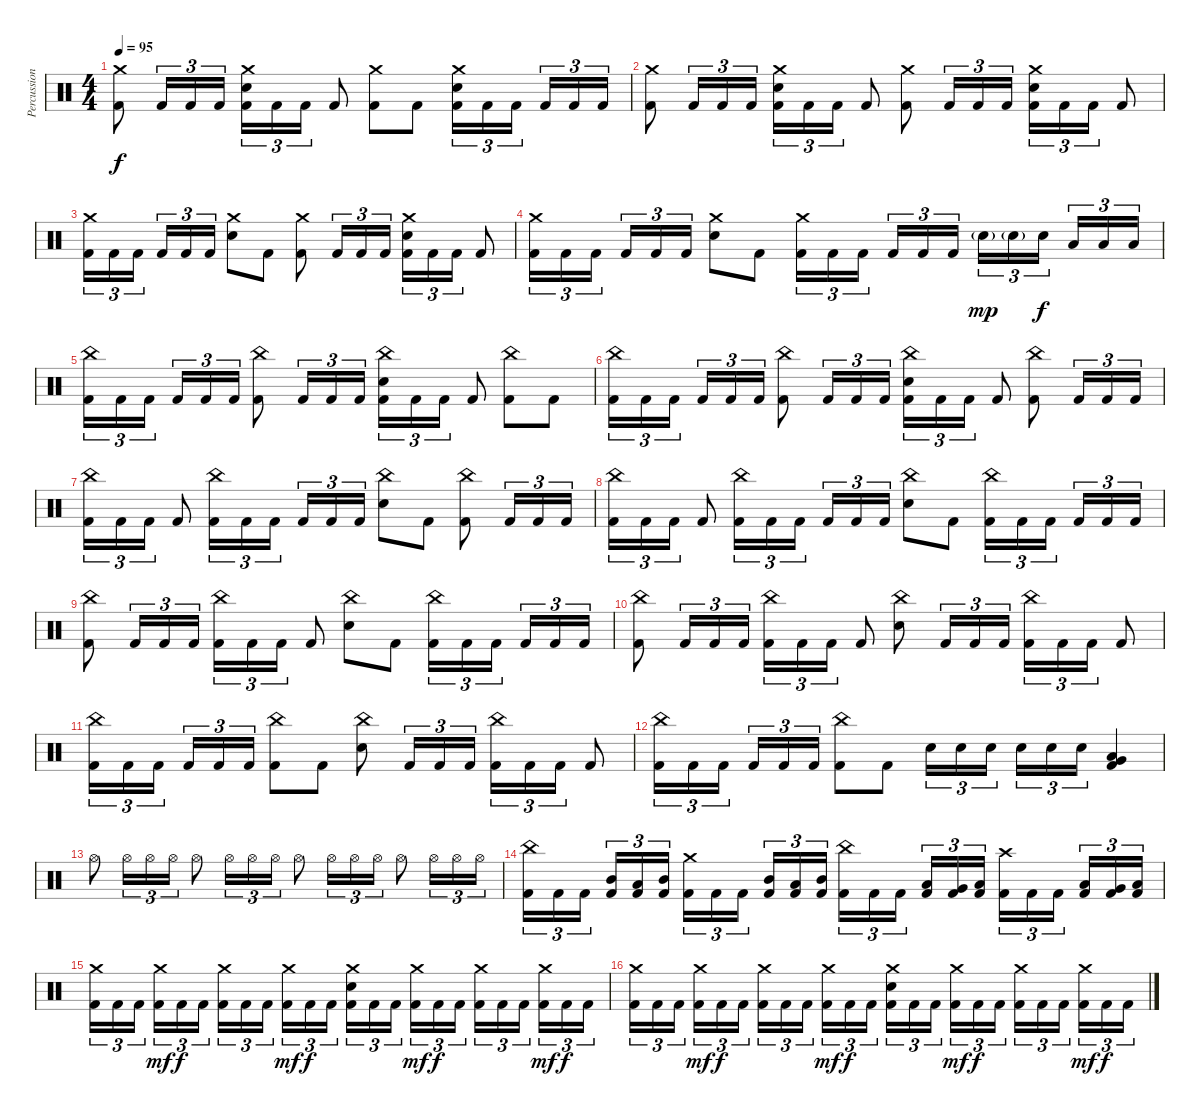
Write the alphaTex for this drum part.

\track ("Percussion" "Percussion") {instrument percussion}
\staff {score}
\articulation defaults
\ts (4 4)
\tempo 95
\clef neutral
\ks c
("Crash medium (hit)" "Kick (hit) 2").8{dy f} "Kick (hit) 2".16{tu (3 2)} "Kick (hit) 2".16{tu (3 2)} "Kick (hit) 2".16{tu (3 2)} ("Crash medium (hit)" "Electric Snare (hit)" "Kick (hit) 2").16{tu (3 2)} "Kick (hit) 2".16{tu (3 2)} "Kick (hit) 2".16{tu (3 2)} "Kick (hit) 2".8 ("Crash medium (hit)" "Kick (hit) 2").8 "Kick (hit) 2".8 ("Crash medium (hit)" "Electric Snare (hit)" "Kick (hit) 2").16{tu (3 2)} "Kick (hit) 2".16{tu (3 2)} "Kick (hit) 2".16{tu (3 2) beam splitsecondary} "Kick (hit) 2".16{tu (3 2)} "Kick (hit) 2".16{tu (3 2)} "Kick (hit) 2".16{tu (3 2)} |
("Crash medium (hit)" "Kick (hit) 2").8 "Kick (hit) 2".16{tu (3 2)} "Kick (hit) 2".16{tu (3 2)} "Kick (hit) 2".16{tu (3 2)} ("Crash medium (hit)" "Electric Snare (hit)" "Kick (hit) 2").16{tu (3 2)} "Kick (hit) 2".16{tu (3 2)} "Kick (hit) 2".16{tu (3 2)} "Kick (hit) 2".8 ("Crash medium (hit)" "Kick (hit) 2").8 "Kick (hit) 2".16{tu (3 2)} "Kick (hit) 2".16{tu (3 2)} "Kick (hit) 2".16{tu (3 2)} ("Crash medium (hit)" "Electric Snare (hit)" "Kick (hit) 2").16{tu (3 2)} "Kick (hit) 2".16{tu (3 2)} "Kick (hit) 2".16{tu (3 2)} "Kick (hit) 2".8 |
("Crash medium (hit)" "Kick (hit) 2").16{tu (3 2)} "Kick (hit) 2".16{tu (3 2)} "Kick (hit) 2".16{tu (3 2) beam splitsecondary} "Kick (hit) 2".16{tu (3 2)} "Kick (hit) 2".16{tu (3 2)} "Kick (hit) 2".16{tu (3 2)} ("Crash medium (hit)" "Electric Snare (hit)").8 "Kick (hit) 2".8 ("Crash medium (hit)" "Kick (hit) 2").8 "Kick (hit) 2".16{tu (3 2)} "Kick (hit) 2".16{tu (3 2)} "Kick (hit) 2".16{tu (3 2)} ("Crash medium (hit)" "Electric Snare (hit)" "Kick (hit) 2").16{tu (3 2)} "Kick (hit) 2".16{tu (3 2)} "Kick (hit) 2".16{tu (3 2)} "Kick (hit) 2".8 |
("Crash medium (hit)" "Kick (hit) 2").16{tu (3 2)} "Kick (hit) 2".16{tu (3 2)} "Kick (hit) 2".16{tu (3 2) beam splitsecondary} "Kick (hit) 2".16{tu (3 2)} "Kick (hit) 2".16{tu (3 2)} "Kick (hit) 2".16{tu (3 2)} ("Crash medium (hit)" "Electric Snare (hit)").8 "Kick (hit) 2".8 ("Crash medium (hit)" "Kick (hit) 2").16{tu (3 2)} "Kick (hit) 2".16{tu (3 2)} "Kick (hit) 2".16{tu (3 2) beam splitsecondary} "Kick (hit) 2".16{tu (3 2)} "Kick (hit) 2".16{tu (3 2)} "Kick (hit) 2".16{tu (3 2)} "Electric Snare (hit)"{g}.16{tu (3 2) dy mp} "Electric Snare (hit)"{g}.16{tu (3 2)} "Electric Snare (hit)".16{tu (3 2) dy f beam splitsecondary} "Low Tom (hit)".16{tu (3 2)} "Low Tom (hit)".16{tu (3 2)} "Low Tom (hit)".16{tu (3 2)} |
("China (hit)" "Kick (hit) 2").16{tu (3 2)} "Kick (hit) 2".16{tu (3 2)} "Kick (hit) 2".16{tu (3 2) beam splitsecondary} "Kick (hit) 2".16{tu (3 2)} "Kick (hit) 2".16{tu (3 2)} "Kick (hit) 2".16{tu (3 2)} ("China (hit)" "Kick (hit) 2").8 "Kick (hit) 2".16{tu (3 2)} "Kick (hit) 2".16{tu (3 2)} "Kick (hit) 2".16{tu (3 2)} ("China (hit)" "Electric Snare (hit)" "Kick (hit) 2").16{tu (3 2)} "Kick (hit) 2".16{tu (3 2)} "Kick (hit) 2".16{tu (3 2)} "Kick (hit) 2".8 ("China (hit)" "Kick (hit) 2").8 "Kick (hit) 2".8 |
("China (hit)" "Kick (hit) 2").16{tu (3 2)} "Kick (hit) 2".16{tu (3 2)} "Kick (hit) 2".16{tu (3 2) beam splitsecondary} "Kick (hit) 2".16{tu (3 2)} "Kick (hit) 2".16{tu (3 2)} "Kick (hit) 2".16{tu (3 2)} ("China (hit)" "Kick (hit) 2").8 "Kick (hit) 2".16{tu (3 2)} "Kick (hit) 2".16{tu (3 2)} "Kick (hit) 2".16{tu (3 2)} ("China (hit)" "Electric Snare (hit)" "Kick (hit) 2").16{tu (3 2)} "Kick (hit) 2".16{tu (3 2)} "Kick (hit) 2".16{tu (3 2)} "Kick (hit) 2".8 ("China (hit)" "Kick (hit) 2").8 "Kick (hit) 2".16{tu (3 2)} "Kick (hit) 2".16{tu (3 2)} "Kick (hit) 2".16{tu (3 2)} |
("China (hit)" "Kick (hit) 2").16{tu (3 2)} "Kick (hit) 2".16{tu (3 2)} "Kick (hit) 2".16{tu (3 2)} "Kick (hit) 2".8 ("China (hit)" "Kick (hit) 2").16{tu (3 2)} "Kick (hit) 2".16{tu (3 2)} "Kick (hit) 2".16{tu (3 2) beam splitsecondary} "Kick (hit) 2".16{tu (3 2)} "Kick (hit) 2".16{tu (3 2)} "Kick (hit) 2".16{tu (3 2)} ("China (hit)" "Electric Snare (hit)").8 "Kick (hit) 2".8 ("China (hit)" "Kick (hit) 2").8 "Kick (hit) 2".16{tu (3 2)} "Kick (hit) 2".16{tu (3 2)} "Kick (hit) 2".16{tu (3 2)} |
("China (hit)" "Kick (hit) 2").16{tu (3 2)} "Kick (hit) 2".16{tu (3 2)} "Kick (hit) 2".16{tu (3 2)} "Kick (hit) 2".8 ("China (hit)" "Kick (hit) 2").16{tu (3 2)} "Kick (hit) 2".16{tu (3 2)} "Kick (hit) 2".16{tu (3 2) beam splitsecondary} "Kick (hit) 2".16{tu (3 2)} "Kick (hit) 2".16{tu (3 2)} "Kick (hit) 2".16{tu (3 2)} ("China (hit)" "Electric Snare (hit)").8 "Kick (hit) 2".8 ("China (hit)" "Kick (hit) 2").16{tu (3 2)} "Kick (hit) 2".16{tu (3 2)} "Kick (hit) 2".16{tu (3 2) beam splitsecondary} "Kick (hit) 2".16{tu (3 2)} "Kick (hit) 2".16{tu (3 2)} "Kick (hit) 2".16{tu (3 2)} |
("China (hit)" "Kick (hit) 2").8 "Kick (hit) 2".16{tu (3 2)} "Kick (hit) 2".16{tu (3 2)} "Kick (hit) 2".16{tu (3 2)} ("China (hit)" "Kick (hit) 2").16{tu (3 2)} "Kick (hit) 2".16{tu (3 2)} "Kick (hit) 2".16{tu (3 2)} "Kick (hit) 2".8 ("China (hit)" "Electric Snare (hit)").8 "Kick (hit) 2".8 ("China (hit)" "Kick (hit) 2").16{tu (3 2)} "Kick (hit) 2".16{tu (3 2)} "Kick (hit) 2".16{tu (3 2) beam splitsecondary} "Kick (hit) 2".16{tu (3 2)} "Kick (hit) 2".16{tu (3 2)} "Kick (hit) 2".16{tu (3 2)} |
("China (hit)" "Kick (hit) 2").8 "Kick (hit) 2".16{tu (3 2)} "Kick (hit) 2".16{tu (3 2)} "Kick (hit) 2".16{tu (3 2)} ("China (hit)" "Kick (hit) 2").16{tu (3 2)} "Kick (hit) 2".16{tu (3 2)} "Kick (hit) 2".16{tu (3 2)} "Kick (hit) 2".8 ("China (hit)" "Electric Snare (hit)").8 "Kick (hit) 2".16{tu (3 2)} "Kick (hit) 2".16{tu (3 2)} "Kick (hit) 2".16{tu (3 2)} ("China (hit)" "Kick (hit) 2").16{tu (3 2)} "Kick (hit) 2".16{tu (3 2)} "Kick (hit) 2".16{tu (3 2)} "Kick (hit) 2".8 |
("China (hit)" "Kick (hit) 2").16{tu (3 2)} "Kick (hit) 2".16{tu (3 2)} "Kick (hit) 2".16{tu (3 2) beam splitsecondary} "Kick (hit) 2".16{tu (3 2)} "Kick (hit) 2".16{tu (3 2)} "Kick (hit) 2".16{tu (3 2)} ("China (hit)" "Kick (hit) 2").8 "Kick (hit) 2".8 ("China (hit)" "Electric Snare (hit)").8 "Kick (hit) 2".16{tu (3 2)} "Kick (hit) 2".16{tu (3 2)} "Kick (hit) 2".16{tu (3 2)} ("China (hit)" "Kick (hit) 2").16{tu (3 2)} "Kick (hit) 2".16{tu (3 2)} "Kick (hit) 2".16{tu (3 2)} "Kick (hit) 2".8 |
("China (hit)" "Kick (hit) 2").16{tu (3 2)} "Kick (hit) 2".16{tu (3 2)} "Kick (hit) 2".16{tu (3 2) beam splitsecondary} "Kick (hit) 2".16{tu (3 2)} "Kick (hit) 2".16{tu (3 2)} "Kick (hit) 2".16{tu (3 2)} ("China (hit)" "Kick (hit) 2").8 "Kick (hit) 2".8 "Electric Snare (hit)".16{tu (3 2)} "Electric Snare (hit)".16{tu (3 2)} "Electric Snare (hit)".16{tu (3 2) beam splitsecondary} "Electric Snare (hit)".16{tu (3 2)} "Electric Snare (hit)".16{tu (3 2)} "Electric Snare (hit)".16{tu (3 2)} ("Low Floor Tom (hit)" "Very Low Tom (hit)" "Kick (hit) 2").4 |
"Hi-Hat (open)".8 "Hi-Hat (open)".16{tu (3 2)} "Hi-Hat (open)".16{tu (3 2)} "Hi-Hat (open)".16{tu (3 2)} "Hi-Hat (open)".8 "Hi-Hat (open)".16{tu (3 2)} "Hi-Hat (open)".16{tu (3 2)} "Hi-Hat (open)".16{tu (3 2)} "Hi-Hat (open)".8 "Hi-Hat (open)".16{tu (3 2)} "Hi-Hat (open)".16{tu (3 2)} "Hi-Hat (open)".16{tu (3 2)} "Hi-Hat (open)".8 "Hi-Hat (open)".16{tu (3 2)} "Hi-Hat (open)".16{tu (3 2)} "Hi-Hat (open)".16{tu (3 2)} |
("China (hit)" "Kick (hit) 2").16{tu (3 2)} "Kick (hit) 2".16{tu (3 2)} "Kick (hit) 2".16{tu (3 2) beam splitsecondary} ("Mid Tom (hit)" "Kick (hit) 2").16{tu (3 2)} ("Low Tom (hit)" "Kick (hit) 2").16{tu (3 2)} ("Mid Tom (hit)" "Kick (hit) 2").16{tu (3 2)} ("Crash medium (hit)" "Kick (hit) 2").16{tu (3 2)} "Kick (hit) 2".16{tu (3 2)} "Kick (hit) 2".16{tu (3 2) beam splitsecondary} ("Mid Tom (hit)" "Kick (hit) 2").16{tu (3 2)} ("Low Tom (hit)" "Kick (hit) 2").16{tu (3 2)} ("Mid Tom (hit)" "Kick (hit) 2").16{tu (3 2)} ("China (hit)" "Kick (hit) 2").16{tu (3 2)} "Kick (hit) 2".16{tu (3 2)} "Kick (hit) 2".16{tu (3 2) beam splitsecondary} ("Low Tom (hit)" "Kick (hit) 2").16{tu (3 2)} ("Very Low Tom (hit)" "Kick (hit) 2").16{tu (3 2)} ("Low Tom (hit)" "Kick (hit) 2").16{tu (3 2)} ("Crash high (hit)" "Kick (hit) 2").16{tu (3 2)} "Kick (hit) 2".16{tu (3 2)} "Kick (hit) 2".16{tu (3 2) beam splitsecondary} ("Low Tom (hit)" "Kick (hit) 2").16{tu (3 2)} ("Very Low Tom (hit)" "Kick (hit) 2").16{tu (3 2)} ("Low Tom (hit)" "Kick (hit) 2").16{tu (3 2)} |
("Crash medium (hit)" "Kick (hit) 2").16{tu (3 2)} "Kick (hit) 2".16{tu (3 2)} "Kick (hit) 2".16{tu (3 2) beam splitsecondary} ("Crash medium (hit)" "Kick (hit) 2").16{tu (3 2) dy mf} "Kick (hit) 2".16{tu (3 2) dy f} "Kick (hit) 2".16{tu (3 2)} ("Crash medium (hit)" "Kick (hit) 2").16{tu (3 2)} "Kick (hit) 2".16{tu (3 2)} "Kick (hit) 2".16{tu (3 2) beam splitsecondary} ("Crash medium (hit)" "Kick (hit) 2").16{tu (3 2) dy mf} "Kick (hit) 2".16{tu (3 2) dy f} "Kick (hit) 2".16{tu (3 2)} ("Crash medium (hit)" "Electric Snare (hit)" "Kick (hit) 2").16{tu (3 2)} "Kick (hit) 2".16{tu (3 2)} "Kick (hit) 2".16{tu (3 2) beam splitsecondary} ("Crash medium (hit)" "Kick (hit) 2").16{tu (3 2) dy mf} "Kick (hit) 2".16{tu (3 2) dy f} "Kick (hit) 2".16{tu (3 2)} ("Crash medium (hit)" "Kick (hit) 2").16{tu (3 2)} "Kick (hit) 2".16{tu (3 2)} "Kick (hit) 2".16{tu (3 2) beam splitsecondary} ("Crash medium (hit)" "Kick (hit) 2").16{tu (3 2) dy mf} "Kick (hit) 2".16{tu (3 2) dy f} "Kick (hit) 2".16{tu (3 2)} |
("Crash medium (hit)" "Kick (hit) 2").16{tu (3 2)} "Kick (hit) 2".16{tu (3 2)} "Kick (hit) 2".16{tu (3 2) beam splitsecondary} ("Crash medium (hit)" "Kick (hit) 2").16{tu (3 2) dy mf} "Kick (hit) 2".16{tu (3 2) dy f} "Kick (hit) 2".16{tu (3 2)} ("Crash medium (hit)" "Kick (hit) 2").16{tu (3 2)} "Kick (hit) 2".16{tu (3 2)} "Kick (hit) 2".16{tu (3 2) beam splitsecondary} ("Crash medium (hit)" "Kick (hit) 2").16{tu (3 2) dy mf} "Kick (hit) 2".16{tu (3 2) dy f} "Kick (hit) 2".16{tu (3 2)} ("Crash medium (hit)" "Electric Snare (hit)" "Kick (hit) 2").16{tu (3 2)} "Kick (hit) 2".16{tu (3 2)} "Kick (hit) 2".16{tu (3 2) beam splitsecondary} ("Crash medium (hit)" "Kick (hit) 2").16{tu (3 2) dy mf} "Kick (hit) 2".16{tu (3 2) dy f} "Kick (hit) 2".16{tu (3 2)} ("Crash medium (hit)" "Kick (hit) 2").16{tu (3 2)} "Kick (hit) 2".16{tu (3 2)} "Kick (hit) 2".16{tu (3 2) beam splitsecondary} ("Crash medium (hit)" "Kick (hit) 2").16{tu (3 2) dy mf} "Kick (hit) 2".16{tu (3 2) dy f} "Kick (hit) 2".16{tu (3 2)}
